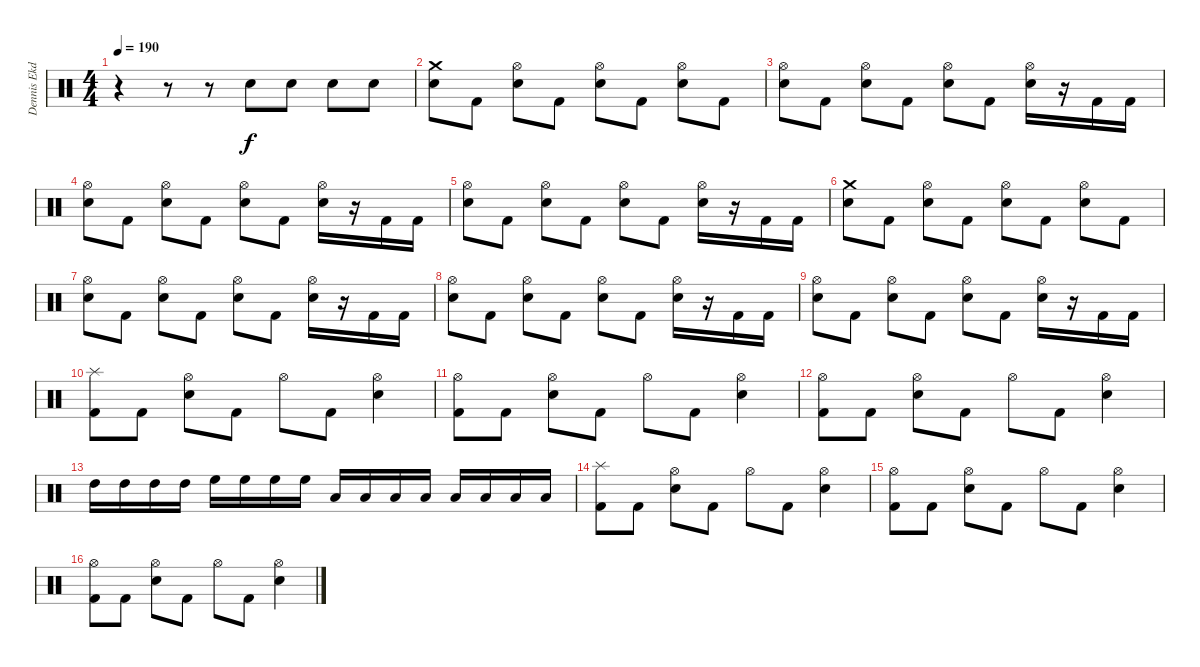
\track ("Dennis Ekdahl" "Dennis Ekd") {instrument percussion}
\staff {score}
\articulation defaults
\ts (4 4)
\tempo 190
\clef neutral
\ks c
r.4{dy f} r.8 r.8 "Electric Snare (hit)".8 "Electric Snare (hit)".8 "Electric Snare (hit)".8 "Electric Snare (hit)".8 |
("Crash medium (hit)" "Snare (hit) 2").8 "Kick (hit) 2".8 ("Hi-Hat (open)" "Snare (hit) 2").8 "Kick (hit) 2".8 ("Hi-Hat (open)" "Snare (hit) 2").8 "Kick (hit) 2".8 ("Hi-Hat (open)" "Snare (hit) 2").8 "Kick (hit) 2".8 |
("Hi-Hat (open)" "Snare (hit) 2").8 "Kick (hit) 2".8 ("Hi-Hat (open)" "Snare (hit) 2").8 "Kick (hit) 2".8 ("Hi-Hat (open)" "Snare (hit) 2").8 "Kick (hit) 2".8 ("Hi-Hat (open)" "Snare (hit) 2").16 r.16 "Kick (hit) 2".16 "Kick (hit) 2".16 |
("Hi-Hat (open)" "Snare (hit) 2").8 "Kick (hit) 2".8 ("Hi-Hat (open)" "Snare (hit) 2").8 "Kick (hit) 2".8 ("Hi-Hat (open)" "Snare (hit) 2").8 "Kick (hit) 2".8 ("Hi-Hat (open)" "Snare (hit) 2").16 r.16 "Kick (hit) 2".16 "Kick (hit) 2".16 |
("Hi-Hat (open)" "Snare (hit) 2").8 "Kick (hit) 2".8 ("Hi-Hat (open)" "Snare (hit) 2").8 "Kick (hit) 2".8 ("Hi-Hat (open)" "Snare (hit) 2").8 "Kick (hit) 2".8 ("Hi-Hat (open)" "Snare (hit) 2").16 r.16 "Kick (hit) 2".16 "Kick (hit) 2".16 |
("Crash medium (hit)" "Snare (hit) 2").8 "Kick (hit) 2".8 ("Hi-Hat (open)" "Snare (hit) 2").8 "Kick (hit) 2".8 ("Hi-Hat (open)" "Snare (hit) 2").8 "Kick (hit) 2".8 ("Hi-Hat (open)" "Snare (hit) 2").8 "Kick (hit) 2".8 |
("Hi-Hat (open)" "Snare (hit) 2").8 "Kick (hit) 2".8 ("Hi-Hat (open)" "Snare (hit) 2").8 "Kick (hit) 2".8 ("Hi-Hat (open)" "Snare (hit) 2").8 "Kick (hit) 2".8 ("Hi-Hat (open)" "Snare (hit) 2").16 r.16 "Kick (hit) 2".16 "Kick (hit) 2".16 |
("Hi-Hat (open)" "Snare (hit) 2").8 "Kick (hit) 2".8 ("Hi-Hat (open)" "Snare (hit) 2").8 "Kick (hit) 2".8 ("Hi-Hat (open)" "Snare (hit) 2").8 "Kick (hit) 2".8 ("Hi-Hat (open)" "Snare (hit) 2").16 r.16 "Kick (hit) 2".16 "Kick (hit) 2".16 |
("Hi-Hat (open)" "Snare (hit) 2").8 "Kick (hit) 2".8 ("Hi-Hat (open)" "Snare (hit) 2").8 "Kick (hit) 2".8 ("Hi-Hat (open)" "Snare (hit) 2").8 "Kick (hit) 2".8 ("Hi-Hat (open)" "Snare (hit) 2").16 r.16 "Kick (hit) 2".16 "Kick (hit) 2".16 |
("Splash (hit)" "Kick (hit) 2").8 "Kick (hit) 2".8 ("Hi-Hat (open)" "Snare (hit) 2").8 "Kick (hit) 2".8 "Hi-Hat (open)".8 "Kick (hit) 2".8 ("Hi-Hat (open)" "Snare (hit) 2").4 |
("Hi-Hat (open)" "Kick (hit) 2").8 "Kick (hit) 2".8 ("Hi-Hat (open)" "Snare (hit) 2").8 "Kick (hit) 2".8 "Hi-Hat (open)".8 "Kick (hit) 2".8 ("Hi-Hat (open)" "Snare (hit) 2").4 |
("Hi-Hat (open)" "Kick (hit) 2").8 "Kick (hit) 2".8 ("Hi-Hat (open)" "Snare (hit) 2").8 "Kick (hit) 2".8 "Hi-Hat (open)".8 "Kick (hit) 2".8 ("Hi-Hat (open)" "Snare (hit) 2").4 |
"High Tom (hit)".16 "High Tom (hit)".16 "High Tom (hit)".16 "High Tom (hit)".16 "High Floor Tom (hit)".16 "High Floor Tom (hit)".16 "High Floor Tom (hit)".16 "High Floor Tom (hit)".16 "Low Tom (hit)".16 "Low Tom (hit)".16 "Low Tom (hit)".16 "Low Tom (hit)".16 "Low Floor Tom (hit)".16 "Low Floor Tom (hit)".16 "Low Floor Tom (hit)".16 "Low Floor Tom (hit)".16 |
("Splash (hit)" "Kick (hit) 2").8 "Kick (hit) 2".8 ("Hi-Hat (open)" "Snare (hit) 2").8 "Kick (hit) 2".8 "Hi-Hat (open)".8 "Kick (hit) 2".8 ("Hi-Hat (open)" "Snare (hit) 2").4 |
("Hi-Hat (open)" "Kick (hit) 2").8 "Kick (hit) 2".8 ("Hi-Hat (open)" "Snare (hit) 2").8 "Kick (hit) 2".8 "Hi-Hat (open)".8 "Kick (hit) 2".8 ("Hi-Hat (open)" "Snare (hit) 2").4 |
("Hi-Hat (open)" "Kick (hit) 2").8 "Kick (hit) 2".8 ("Hi-Hat (open)" "Snare (hit) 2").8 "Kick (hit) 2".8 "Hi-Hat (open)".8 "Kick (hit) 2".8 ("Hi-Hat (open)" "Snare (hit) 2").4
